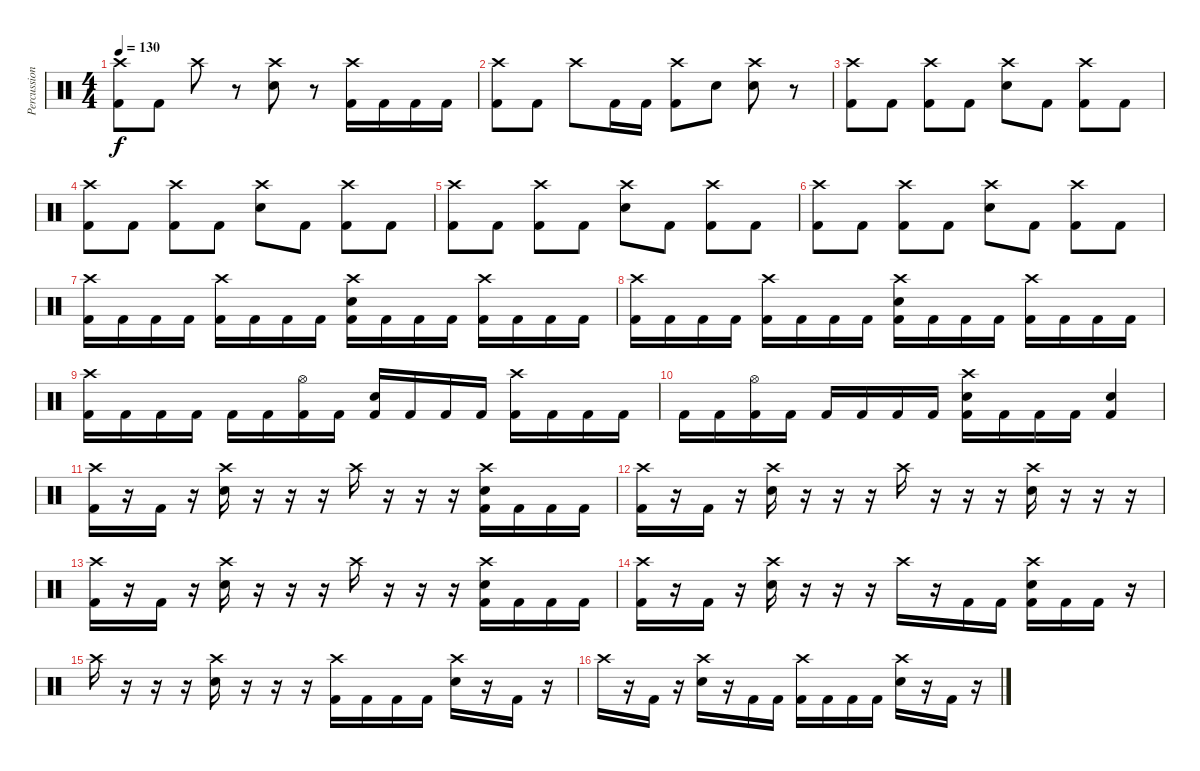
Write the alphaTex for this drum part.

\track ("Percussion" "Percussion") {instrument percussion}
\staff {score}
\articulation defaults
\ts (4 4)
\tempo 130
\clef neutral
\ks c
("Crash high (hit)" "Kick (hit) 2").8{dy f} "Kick (hit) 2".8 "Crash high (hit)".8 r.8 ("Crash high (hit)" "Electric Snare (hit)").8 r.8 ("Crash high (hit)" "Kick (hit) 2").16 "Kick (hit) 2".16 "Kick (hit) 2".16 "Kick (hit) 2".16 |
("Crash high (hit)" "Kick (hit) 2").8 "Kick (hit) 2".8 "Crash high (hit)".8 "Kick (hit) 2".16 "Kick (hit) 2".16 ("Crash high (hit)" "Kick (hit) 2").8 "Electric Snare (hit)".8 ("Crash high (hit)" "Electric Snare (hit)").8 r.8 |
("Crash high (hit)" "Kick (hit) 2").8 "Kick (hit) 2".8 ("Crash high (hit)" "Kick (hit) 2").8 "Kick (hit) 2".8 ("Crash high (hit)" "Electric Snare (hit)").8 "Kick (hit) 2".8 ("Crash high (hit)" "Kick (hit) 2").8 "Kick (hit) 2".8 |
("Crash high (hit)" "Kick (hit) 2").8 "Kick (hit) 2".8 ("Crash high (hit)" "Kick (hit) 2").8 "Kick (hit) 2".8 ("Crash high (hit)" "Electric Snare (hit)").8 "Kick (hit) 2".8 ("Crash high (hit)" "Kick (hit) 2").8 "Kick (hit) 2".8 |
("Crash high (hit)" "Kick (hit) 2").8 "Kick (hit) 2".8 ("Crash high (hit)" "Kick (hit) 2").8 "Kick (hit) 2".8 ("Crash high (hit)" "Electric Snare (hit)").8 "Kick (hit) 2".8 ("Crash high (hit)" "Kick (hit) 2").8 "Kick (hit) 2".8 |
("Crash high (hit)" "Kick (hit) 2").8 "Kick (hit) 2".8 ("Crash high (hit)" "Kick (hit) 2").8 "Kick (hit) 2".8 ("Crash high (hit)" "Electric Snare (hit)").8 "Kick (hit) 2".8 ("Crash high (hit)" "Kick (hit) 2").8 "Kick (hit) 2".8 |
("Crash high (hit)" "Kick (hit) 2").16 "Kick (hit) 2".16 "Kick (hit) 2".16 "Kick (hit) 2".16 ("Crash high (hit)" "Kick (hit) 2").16 "Kick (hit) 2".16 "Kick (hit) 2".16 "Kick (hit) 2".16 ("Crash high (hit)" "Electric Snare (hit)" "Kick (hit) 2").16 "Kick (hit) 2".16 "Kick (hit) 2".16 "Kick (hit) 2".16 ("Crash high (hit)" "Kick (hit) 2").16 "Kick (hit) 2".16 "Kick (hit) 2".16 "Kick (hit) 2".16 |
("Crash high (hit)" "Kick (hit) 2").16 "Kick (hit) 2".16 "Kick (hit) 2".16 "Kick (hit) 2".16 ("Crash high (hit)" "Kick (hit) 2").16 "Kick (hit) 2".16 "Kick (hit) 2".16 "Kick (hit) 2".16 ("Crash high (hit)" "Electric Snare (hit)" "Kick (hit) 2").16 "Kick (hit) 2".16 "Kick (hit) 2".16 "Kick (hit) 2".16 ("Crash high (hit)" "Kick (hit) 2").16 "Kick (hit) 2".16 "Kick (hit) 2".16 "Kick (hit) 2".16 |
("Crash high (hit)" "Kick (hit) 2").16 "Kick (hit) 2".16 "Kick (hit) 2".16 "Kick (hit) 2".16 "Kick (hit) 2".16 "Kick (hit) 2".16 ("Hi-Hat (open)" "Kick (hit) 2").16 "Kick (hit) 2".16 ("Electric Snare (hit)" "Kick (hit) 2").16 "Kick (hit) 2".16 "Kick (hit) 2".16 "Kick (hit) 2".16 ("Crash high (hit)" "Kick (hit) 2").16 "Kick (hit) 2".16 "Kick (hit) 2".16 "Kick (hit) 2".16 |
"Kick (hit) 2".16 "Kick (hit) 2".16 ("Hi-Hat (open)" "Kick (hit) 2").16 "Kick (hit) 2".16 "Kick (hit) 2".16 "Kick (hit) 2".16 "Kick (hit) 2".16 "Kick (hit) 2".16 ("Crash high (hit)" "Electric Snare (hit)" "Kick (hit) 2").16 "Kick (hit) 2".16 "Kick (hit) 2".16 "Kick (hit) 2".16 ("Electric Snare (hit)" "Kick (hit) 2").4 |
("Crash high (hit)" "Kick (hit) 2").16 r.16 "Kick (hit) 2".16 r.16 ("Crash high (hit)" "Electric Snare (hit)").16 r.16 r.16 r.16 "Crash high (hit)".16 r.16 r.16 r.16 ("Crash high (hit)" "Electric Snare (hit)" "Kick (hit) 2").16 "Kick (hit) 2".16 "Kick (hit) 2".16 "Kick (hit) 2".16 |
("Crash high (hit)" "Kick (hit) 2").16 r.16 "Kick (hit) 2".16 r.16 ("Crash high (hit)" "Electric Snare (hit)").16 r.16 r.16 r.16 "Crash high (hit)".16 r.16 r.16 r.16 ("Crash high (hit)" "Electric Snare (hit)").16 r.16 r.16 r.16 |
("Crash high (hit)" "Kick (hit) 2").16 r.16 "Kick (hit) 2".16 r.16 ("Crash high (hit)" "Electric Snare (hit)").16 r.16 r.16 r.16 "Crash high (hit)".16 r.16 r.16 r.16 ("Crash high (hit)" "Electric Snare (hit)" "Kick (hit) 2").16 "Kick (hit) 2".16 "Kick (hit) 2".16 "Kick (hit) 2".16 |
("Crash high (hit)" "Kick (hit) 2").16 r.16 "Kick (hit) 2".16 r.16 ("Crash high (hit)" "Electric Snare (hit)").16 r.16 r.16 r.16 "Crash high (hit)".16 r.16 "Kick (hit) 2".16 "Kick (hit) 2".16 ("Crash high (hit)" "Electric Snare (hit)" "Kick (hit) 2").16 "Kick (hit) 2".16 "Kick (hit) 2".16 r.16 |
"Crash high (hit)".16 r.16 r.16 r.16 ("Crash high (hit)" "Electric Snare (hit)").16 r.16 r.16 r.16 ("Crash high (hit)" "Kick (hit) 2").16 "Kick (hit) 2".16 "Kick (hit) 2".16 "Kick (hit) 2".16 ("Crash high (hit)" "Electric Snare (hit)").16 r.16 "Kick (hit) 2".16 r.16 |
"Crash high (hit)".16 r.16 "Kick (hit) 2".16 r.16 ("Crash high (hit)" "Electric Snare (hit)").16 r.16 "Kick (hit) 2".16 "Kick (hit) 2".16 ("Crash high (hit)" "Kick (hit) 2").16 "Kick (hit) 2".16 "Kick (hit) 2".16 "Kick (hit) 2".16 ("Crash high (hit)" "Electric Snare (hit)").16 r.16 "Kick (hit) 2".16 r.16
